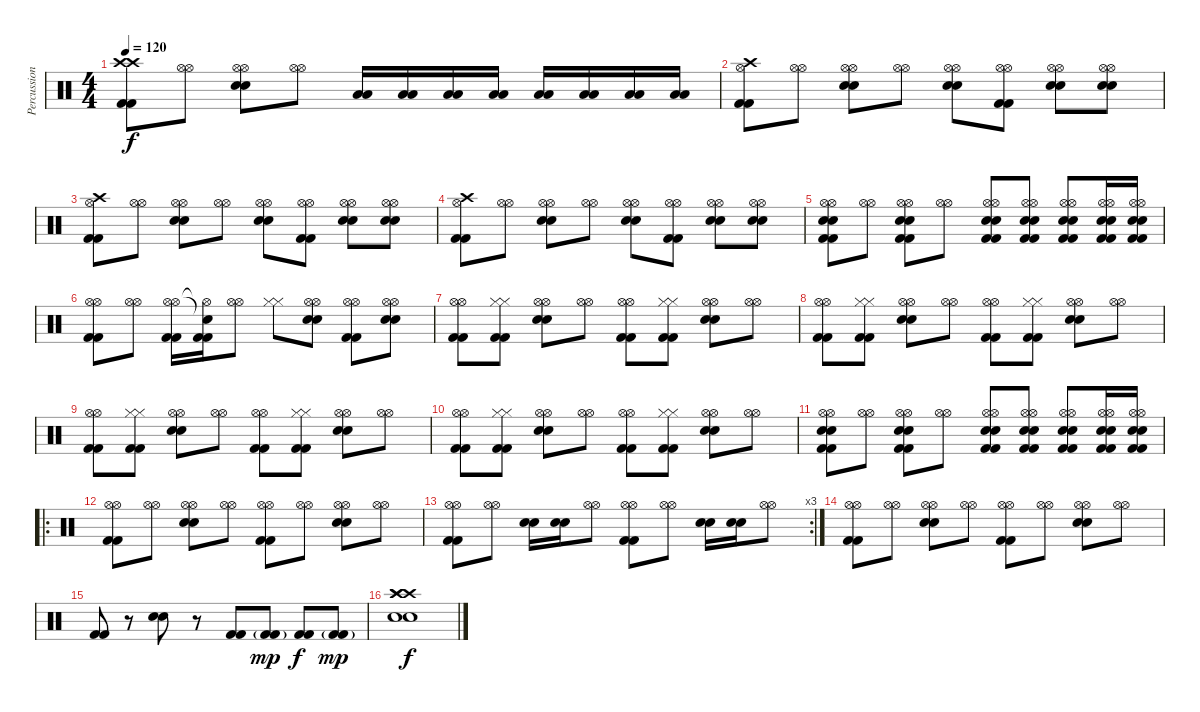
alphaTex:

\track ("Percussions" "Percussion") {instrument percussion}
\staff {score}
\articulation defaults
\ts (4 4)
\tempo 120
\clef neutral
\ks c
("Crash high (hit)" "Crash high (hit)" "Kick (hit) 2" "Kick (hit) 2").8{dy f} ("Hi-Hat (open)" "Hi-Hat (open)").8 ("Hi-Hat (open)" "Hi-Hat (open)" "Snare (hit) 2" "Snare (hit) 2").8 ("Hi-Hat (open)" "Hi-Hat (open)").8 ("Low Tom (hit)" "Low Tom (hit)").16 ("Low Tom (hit)" "Low Tom (hit)").16 ("Low Tom (hit)" "Low Tom (hit)").16 ("Low Tom (hit)" "Low Tom (hit)").16 ("Low Tom (hit)" "Low Tom (hit)").16 ("Low Tom (hit)" "Low Tom (hit)").16 ("Low Tom (hit)" "Low Tom (hit)").16 ("Low Tom (hit)" "Low Tom (hit)").16 |
("Crash high (hit)" "Hi-Hat (open)" "Kick (hit) 2" "Kick (hit) 2").8 ("Hi-Hat (open)" "Hi-Hat (open)").8 ("Hi-Hat (open)" "Hi-Hat (open)" "Snare (hit) 2" "Snare (hit) 2").8 ("Hi-Hat (open)" "Hi-Hat (open)").8 ("Hi-Hat (open)" "Hi-Hat (open)" "Snare (hit) 2" "Snare (hit) 2").8 ("Hi-Hat (open)" "Hi-Hat (open)" "Kick (hit) 2" "Kick (hit) 2").8 ("Hi-Hat (open)" "Hi-Hat (open)" "Snare (hit) 2" "Snare (hit) 2").8 ("Hi-Hat (open)" "Hi-Hat (open)" "Snare (hit) 2" "Snare (hit) 2").8 |
("Crash high (hit)" "Hi-Hat (open)" "Kick (hit) 2" "Kick (hit) 2").8 ("Hi-Hat (open)" "Hi-Hat (open)").8 ("Hi-Hat (open)" "Hi-Hat (open)" "Snare (hit) 2" "Snare (hit) 2").8 ("Hi-Hat (open)" "Hi-Hat (open)").8 ("Hi-Hat (open)" "Hi-Hat (open)" "Snare (hit) 2" "Snare (hit) 2").8 ("Hi-Hat (open)" "Hi-Hat (open)" "Kick (hit) 2" "Kick (hit) 2").8 ("Hi-Hat (open)" "Hi-Hat (open)" "Snare (hit) 2" "Snare (hit) 2").8 ("Hi-Hat (open)" "Hi-Hat (open)" "Snare (hit) 2" "Snare (hit) 2").8 |
("Crash high (hit)" "Hi-Hat (open)" "Kick (hit) 2" "Kick (hit) 2").8 ("Hi-Hat (open)" "Hi-Hat (open)").8 ("Hi-Hat (open)" "Hi-Hat (open)" "Snare (hit) 2" "Snare (hit) 2").8 ("Hi-Hat (open)" "Hi-Hat (open)").8 ("Hi-Hat (open)" "Hi-Hat (open)" "Snare (hit) 2" "Snare (hit) 2").8 ("Hi-Hat (open)" "Hi-Hat (open)" "Kick (hit) 2" "Kick (hit) 2").8 ("Hi-Hat (open)" "Hi-Hat (open)" "Snare (hit) 2" "Snare (hit) 2").8 ("Hi-Hat (open)" "Hi-Hat (open)" "Snare (hit) 2" "Snare (hit) 2").8 |
("Hi-Hat (open)" "Hi-Hat (open)" "Snare (hit) 2" "Snare (hit) 2" "Kick (hit) 2" "Kick (hit) 2").8 ("Hi-Hat (open)" "Hi-Hat (open)").8 ("Hi-Hat (open)" "Hi-Hat (open)" "Snare (hit) 2" "Snare (hit) 2" "Kick (hit) 2" "Kick (hit) 2").8 ("Hi-Hat (open)" "Hi-Hat (open)").8 ("Hi-Hat (open)" "Hi-Hat (open)" "Snare (hit) 2" "Snare (hit) 2" "Kick (hit) 2" "Kick (hit) 2").8 ("Hi-Hat (open)" "Hi-Hat (open)" "Snare (hit) 2" "Snare (hit) 2" "Kick (hit) 2" "Kick (hit) 2").8 ("Hi-Hat (open)" "Hi-Hat (open)" "Snare (hit) 2" "Snare (hit) 2" "Kick (hit) 2" "Kick (hit) 2").8 ("Hi-Hat (open)" "Hi-Hat (open)" "Snare (hit) 2" "Snare (hit) 2" "Kick (hit) 2" "Kick (hit) 2").16 ("Hi-Hat (open)" "Hi-Hat (open)" "Snare (hit) 2" "Snare (hit) 2" "Kick (hit) 2" "Kick (hit) 2").16 |
("Hi-Hat (open)" "Hi-Hat (open)" "Kick (hit) 2" "Kick (hit) 2").8 ("Hi-Hat (open)" "Hi-Hat (open)").8 ("Hi-Hat (open)" "Hi-Hat (open)" "Kick (hit) 2" "Kick (hit) 2").16 ("Hi-Hat (open)"{t} "Snare (hit)"{t} "Kick (hit) 2" "Kick (hit) 2").16 ("Hi-Hat (open)" "Hi-Hat (open)").8 ("Hi-Hat (closed)" "Hi-Hat (closed)").8 ("Hi-Hat (open)" "Hi-Hat (open)" "Snare (hit) 2" "Snare (hit) 2").8 ("Hi-Hat (open)" "Hi-Hat (open)" "Kick (hit) 2" "Kick (hit) 2").8 ("Hi-Hat (open)" "Hi-Hat (open)" "Snare (hit) 2" "Snare (hit) 2").8 |
("Hi-Hat (open)" "Hi-Hat (open)" "Kick (hit) 2" "Kick (hit) 2").8 ("Hi-Hat (closed)" "Hi-Hat (closed)" "Kick (hit) 2" "Kick (hit) 2").8 ("Hi-Hat (open)" "Hi-Hat (open)" "Snare (hit) 2" "Snare (hit) 2").8 ("Hi-Hat (open)" "Hi-Hat (open)").8 ("Hi-Hat (open)" "Hi-Hat (open)" "Kick (hit) 2" "Kick (hit) 2").8 ("Hi-Hat (closed)" "Hi-Hat (closed)" "Kick (hit) 2" "Kick (hit) 2").8 ("Hi-Hat (open)" "Hi-Hat (open)" "Snare (hit) 2" "Snare (hit) 2").8 ("Hi-Hat (open)" "Hi-Hat (open)").8 |
("Hi-Hat (open)" "Hi-Hat (open)" "Kick (hit) 2" "Kick (hit) 2").8 ("Hi-Hat (closed)" "Hi-Hat (closed)" "Kick (hit) 2" "Kick (hit) 2").8 ("Hi-Hat (open)" "Hi-Hat (open)" "Snare (hit) 2" "Snare (hit) 2").8 ("Hi-Hat (open)" "Hi-Hat (open)").8 ("Hi-Hat (open)" "Hi-Hat (open)" "Kick (hit) 2" "Kick (hit) 2").8 ("Hi-Hat (closed)" "Hi-Hat (closed)" "Kick (hit) 2" "Kick (hit) 2").8 ("Hi-Hat (open)" "Hi-Hat (open)" "Snare (hit) 2" "Snare (hit) 2").8 ("Hi-Hat (open)" "Hi-Hat (open)").8 |
("Hi-Hat (open)" "Hi-Hat (open)" "Kick (hit) 2" "Kick (hit) 2").8 ("Hi-Hat (closed)" "Hi-Hat (closed)" "Kick (hit) 2" "Kick (hit) 2").8 ("Hi-Hat (open)" "Hi-Hat (open)" "Snare (hit) 2" "Snare (hit) 2").8 ("Hi-Hat (open)" "Hi-Hat (open)").8 ("Hi-Hat (open)" "Hi-Hat (open)" "Kick (hit) 2" "Kick (hit) 2").8 ("Hi-Hat (closed)" "Hi-Hat (closed)" "Kick (hit) 2" "Kick (hit) 2").8 ("Hi-Hat (open)" "Hi-Hat (open)" "Snare (hit) 2" "Snare (hit) 2").8 ("Hi-Hat (open)" "Hi-Hat (open)").8 |
("Hi-Hat (open)" "Hi-Hat (open)" "Kick (hit) 2" "Kick (hit) 2").8 ("Hi-Hat (closed)" "Hi-Hat (closed)" "Kick (hit) 2" "Kick (hit) 2").8 ("Hi-Hat (open)" "Hi-Hat (open)" "Snare (hit) 2" "Snare (hit) 2").8 ("Hi-Hat (open)" "Hi-Hat (open)").8 ("Hi-Hat (open)" "Hi-Hat (open)" "Kick (hit) 2" "Kick (hit) 2").8 ("Hi-Hat (closed)" "Hi-Hat (closed)" "Kick (hit) 2" "Kick (hit) 2").8 ("Hi-Hat (open)" "Hi-Hat (open)" "Snare (hit) 2" "Snare (hit) 2").8 ("Hi-Hat (open)" "Hi-Hat (open)").8 |
("Hi-Hat (open)" "Hi-Hat (open)" "Snare (hit) 2" "Snare (hit) 2" "Kick (hit) 2" "Kick (hit) 2").8 ("Hi-Hat (open)" "Hi-Hat (open)").8 ("Hi-Hat (open)" "Hi-Hat (open)" "Snare (hit) 2" "Snare (hit) 2" "Kick (hit) 2" "Kick (hit) 2").8 ("Hi-Hat (open)" "Hi-Hat (open)").8 ("Hi-Hat (open)" "Hi-Hat (open)" "Snare (hit) 2" "Snare (hit) 2" "Kick (hit) 2" "Kick (hit) 2").8 ("Hi-Hat (open)" "Hi-Hat (open)" "Snare (hit) 2" "Snare (hit) 2" "Kick (hit) 2" "Kick (hit) 2").8 ("Hi-Hat (open)" "Hi-Hat (open)" "Snare (hit) 2" "Snare (hit) 2" "Kick (hit) 2" "Kick (hit) 2").8 ("Hi-Hat (open)" "Hi-Hat (open)" "Snare (hit) 2" "Snare (hit) 2" "Kick (hit) 2" "Kick (hit) 2").16 ("Hi-Hat (open)" "Hi-Hat (open)" "Snare (hit) 2" "Snare (hit) 2" "Kick (hit) 2" "Kick (hit) 2").16 |
\ro
("Hi-Hat (open)" "Hi-Hat (open)" "Kick (hit) 2" "Kick (hit) 2").8 ("Hi-Hat (open)" "Hi-Hat (open)").8 ("Hi-Hat (open)" "Hi-Hat (open)" "Snare (hit) 2" "Snare (hit) 2").8 ("Hi-Hat (open)" "Hi-Hat (open)").8 ("Hi-Hat (open)" "Hi-Hat (open)" "Kick (hit) 2" "Kick (hit) 2").8 ("Hi-Hat (open)" "Hi-Hat (open)").8 ("Hi-Hat (open)" "Hi-Hat (open)" "Snare (hit) 2" "Snare (hit) 2").8 ("Hi-Hat (open)" "Hi-Hat (open)").8 |
\rc 3
("Hi-Hat (open)" "Hi-Hat (open)" "Kick (hit) 2" "Kick (hit) 2").8 ("Hi-Hat (open)" "Hi-Hat (open)").8 ("Snare (hit) 2" "Snare (hit) 2").16 ("Snare (hit) 2" "Snare (hit) 2").16 ("Hi-Hat (open)" "Hi-Hat (open)").8 ("Hi-Hat (open)" "Hi-Hat (open)" "Kick (hit) 2" "Kick (hit) 2").8 ("Hi-Hat (open)" "Hi-Hat (open)").8 ("Snare (hit) 2" "Snare (hit) 2").16 ("Snare (hit) 2" "Snare (hit) 2").16 ("Hi-Hat (open)" "Hi-Hat (open)").8 |
("Hi-Hat (open)" "Hi-Hat (open)" "Kick (hit) 2" "Kick (hit) 2").8 ("Hi-Hat (open)" "Hi-Hat (open)").8 ("Hi-Hat (open)" "Hi-Hat (open)" "Snare (hit) 2" "Snare (hit) 2").8 ("Hi-Hat (open)" "Hi-Hat (open)").8 ("Hi-Hat (open)" "Hi-Hat (open)" "Kick (hit) 2" "Kick (hit) 2").8 ("Hi-Hat (open)" "Hi-Hat (open)").8 ("Hi-Hat (open)" "Hi-Hat (open)" "Snare (hit) 2" "Snare (hit) 2").8 ("Hi-Hat (open)" "Hi-Hat (open)").8 |
("Kick (hit) 2" "Kick (hit) 2").8 r.8 ("Snare (hit) 2" "Snare (hit) 2").8 r.8 ("Kick (hit) 2" "Kick (hit) 2").8 ("Kick (hit) 2"{g} "Kick (hit) 2"{g}).8{dy mp} ("Kick (hit) 2" "Kick (hit) 2").8{dy f} ("Kick (hit) 2"{g} "Kick (hit) 2"{g}).8{dy mp} |
("Crash high (hit)" "Crash high (hit)" "Crash high (hit)" "Snare (hit) 2" "Snare (hit) 2").1{dy f}
